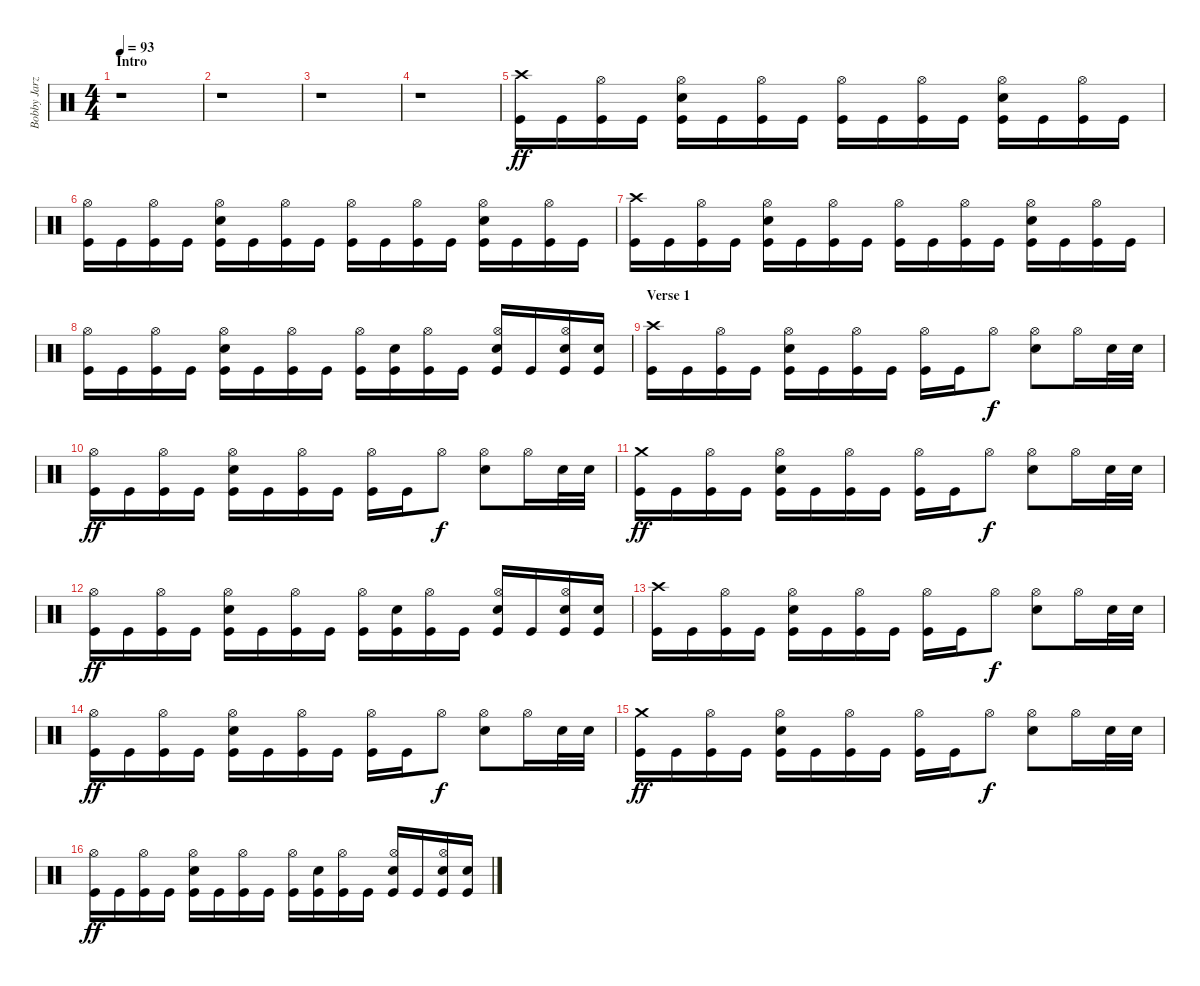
\track ("Bobby Jarzombek" "Bobby Jarz") {instrument percussion}
\staff {score}
\articulation defaults
\ts (4 4)
\section ("" "Intro")
\tempo 93
\clef neutral
\ks c
r.1{dy ff} |
r.1 |
r.1 |
r.1 |
("Crash high (hit)" "Kick (hit)").16 "Kick (hit)".16 ("Hi-Hat (open)" "Kick (hit)").16 "Kick (hit)".16 ("Hi-Hat (open)" "Electric Snare (hit)" "Kick (hit)").16 "Kick (hit)".16 ("Hi-Hat (open)" "Kick (hit)").16 "Kick (hit)".16 ("Hi-Hat (open)" "Kick (hit)").16 "Kick (hit)".16 ("Hi-Hat (open)" "Kick (hit)").16 "Kick (hit)".16 ("Hi-Hat (open)" "Electric Snare (hit)" "Kick (hit)").16 "Kick (hit)".16 ("Hi-Hat (open)" "Kick (hit)").16 "Kick (hit)".16 |
("Hi-Hat (open)" "Kick (hit)").16 "Kick (hit)".16 ("Hi-Hat (open)" "Kick (hit)").16 "Kick (hit)".16 ("Hi-Hat (open)" "Electric Snare (hit)" "Kick (hit)").16 "Kick (hit)".16 ("Hi-Hat (open)" "Kick (hit)").16 "Kick (hit)".16 ("Hi-Hat (open)" "Kick (hit)").16 "Kick (hit)".16 ("Hi-Hat (open)" "Kick (hit)").16 "Kick (hit)".16 ("Hi-Hat (open)" "Electric Snare (hit)" "Kick (hit)").16 "Kick (hit)".16 ("Hi-Hat (open)" "Kick (hit)").16 "Kick (hit)".16 |
("Crash high (hit)" "Kick (hit)").16 "Kick (hit)".16 ("Hi-Hat (open)" "Kick (hit)").16 "Kick (hit)".16 ("Hi-Hat (open)" "Electric Snare (hit)" "Kick (hit)").16 "Kick (hit)".16 ("Hi-Hat (open)" "Kick (hit)").16 "Kick (hit)".16 ("Hi-Hat (open)" "Kick (hit)").16 "Kick (hit)".16 ("Hi-Hat (open)" "Kick (hit)").16 "Kick (hit)".16 ("Hi-Hat (open)" "Electric Snare (hit)" "Kick (hit)").16 "Kick (hit)".16 ("Hi-Hat (open)" "Kick (hit)").16 "Kick (hit)".16 |
("Hi-Hat (open)" "Kick (hit)").16 "Kick (hit)".16 ("Hi-Hat (open)" "Kick (hit)").16 "Kick (hit)".16 ("Hi-Hat (open)" "Electric Snare (hit)" "Kick (hit)").16 "Kick (hit)".16 ("Hi-Hat (open)" "Kick (hit)").16 "Kick (hit)".16 ("Hi-Hat (open)" "Kick (hit)").16 ("Electric Snare (hit)" "Kick (hit)").16 ("Hi-Hat (open)" "Kick (hit)").16 "Kick (hit)".16 ("Hi-Hat (open)" "Electric Snare (hit)" "Kick (hit)").16 "Kick (hit)".16 ("Hi-Hat (open)" "Electric Snare (hit)" "Kick (hit)").16 ("Electric Snare (hit)" "Kick (hit)").16 |
\section ("" "Verse 1")
("Crash high (hit)" "Kick (hit)").16 "Kick (hit)".16 ("Hi-Hat (open)" "Kick (hit)").16 "Kick (hit)".16 ("Hi-Hat (open)" "Electric Snare (hit)" "Kick (hit)").16 "Kick (hit)".16 ("Hi-Hat (open)" "Kick (hit)").16 "Kick (hit)".16 ("Hi-Hat (open)" "Kick (hit)").16 "Kick (hit)".16 "Hi-Hat (open)".8{dy f} ("Hi-Hat (open)" "Electric Snare (hit)").8 "Hi-Hat (open)".16 "Electric Snare (hit)".32 "Electric Snare (hit)".32 |
("Hi-Hat (open)" "Kick (hit)").16{dy ff} "Kick (hit)".16 ("Hi-Hat (open)" "Kick (hit)").16 "Kick (hit)".16 ("Hi-Hat (open)" "Electric Snare (hit)" "Kick (hit)").16 "Kick (hit)".16 ("Hi-Hat (open)" "Kick (hit)").16 "Kick (hit)".16 ("Hi-Hat (open)" "Kick (hit)").16 "Kick (hit)".16 "Hi-Hat (open)".8{dy f} ("Hi-Hat (open)" "Electric Snare (hit)").8 "Hi-Hat (open)".16 "Electric Snare (hit)".32 "Electric Snare (hit)".32 |
("Crash medium (hit)" "Kick (hit)").16{dy ff} "Kick (hit)".16 ("Hi-Hat (open)" "Kick (hit)").16 "Kick (hit)".16 ("Hi-Hat (open)" "Electric Snare (hit)" "Kick (hit)").16 "Kick (hit)".16 ("Hi-Hat (open)" "Kick (hit)").16 "Kick (hit)".16 ("Hi-Hat (open)" "Kick (hit)").16 "Kick (hit)".16 "Hi-Hat (open)".8{dy f} ("Hi-Hat (open)" "Electric Snare (hit)").8 "Hi-Hat (open)".16 "Electric Snare (hit)".32 "Electric Snare (hit)".32 |
("Hi-Hat (open)" "Kick (hit)").16{dy ff} "Kick (hit)".16 ("Hi-Hat (open)" "Kick (hit)").16 "Kick (hit)".16 ("Hi-Hat (open)" "Electric Snare (hit)" "Kick (hit)").16 "Kick (hit)".16 ("Hi-Hat (open)" "Kick (hit)").16 "Kick (hit)".16 ("Hi-Hat (open)" "Kick (hit)").16 ("Electric Snare (hit)" "Kick (hit)").16 ("Hi-Hat (open)" "Kick (hit)").16 "Kick (hit)".16 ("Hi-Hat (open)" "Electric Snare (hit)" "Kick (hit)").16 "Kick (hit)".16 ("Hi-Hat (open)" "Electric Snare (hit)" "Kick (hit)").16 ("Electric Snare (hit)" "Kick (hit)").16 |
("Crash high (hit)" "Kick (hit)").16 "Kick (hit)".16 ("Hi-Hat (open)" "Kick (hit)").16 "Kick (hit)".16 ("Hi-Hat (open)" "Electric Snare (hit)" "Kick (hit)").16 "Kick (hit)".16 ("Hi-Hat (open)" "Kick (hit)").16 "Kick (hit)".16 ("Hi-Hat (open)" "Kick (hit)").16 "Kick (hit)".16 "Hi-Hat (open)".8{dy f} ("Hi-Hat (open)" "Electric Snare (hit)").8 "Hi-Hat (open)".16 "Electric Snare (hit)".32 "Electric Snare (hit)".32 |
("Hi-Hat (open)" "Kick (hit)").16{dy ff} "Kick (hit)".16 ("Hi-Hat (open)" "Kick (hit)").16 "Kick (hit)".16 ("Hi-Hat (open)" "Electric Snare (hit)" "Kick (hit)").16 "Kick (hit)".16 ("Hi-Hat (open)" "Kick (hit)").16 "Kick (hit)".16 ("Hi-Hat (open)" "Kick (hit)").16 "Kick (hit)".16 "Hi-Hat (open)".8{dy f} ("Hi-Hat (open)" "Electric Snare (hit)").8 "Hi-Hat (open)".16 "Electric Snare (hit)".32 "Electric Snare (hit)".32 |
("Crash medium (hit)" "Kick (hit)").16{dy ff} "Kick (hit)".16 ("Hi-Hat (open)" "Kick (hit)").16 "Kick (hit)".16 ("Hi-Hat (open)" "Electric Snare (hit)" "Kick (hit)").16 "Kick (hit)".16 ("Hi-Hat (open)" "Kick (hit)").16 "Kick (hit)".16 ("Hi-Hat (open)" "Kick (hit)").16 "Kick (hit)".16 "Hi-Hat (open)".8{dy f} ("Hi-Hat (open)" "Electric Snare (hit)").8 "Hi-Hat (open)".16 "Electric Snare (hit)".32 "Electric Snare (hit)".32 |
("Hi-Hat (open)" "Kick (hit)").16{dy ff} "Kick (hit)".16 ("Hi-Hat (open)" "Kick (hit)").16 "Kick (hit)".16 ("Hi-Hat (open)" "Electric Snare (hit)" "Kick (hit)").16 "Kick (hit)".16 ("Hi-Hat (open)" "Kick (hit)").16 "Kick (hit)".16 ("Hi-Hat (open)" "Kick (hit)").16 ("Electric Snare (hit)" "Kick (hit)").16 ("Hi-Hat (open)" "Kick (hit)").16 "Kick (hit)".16 ("Hi-Hat (open)" "Electric Snare (hit)" "Kick (hit)").16 "Kick (hit)".16 ("Hi-Hat (open)" "Electric Snare (hit)" "Kick (hit)").16 ("Electric Snare (hit)" "Kick (hit)").16
